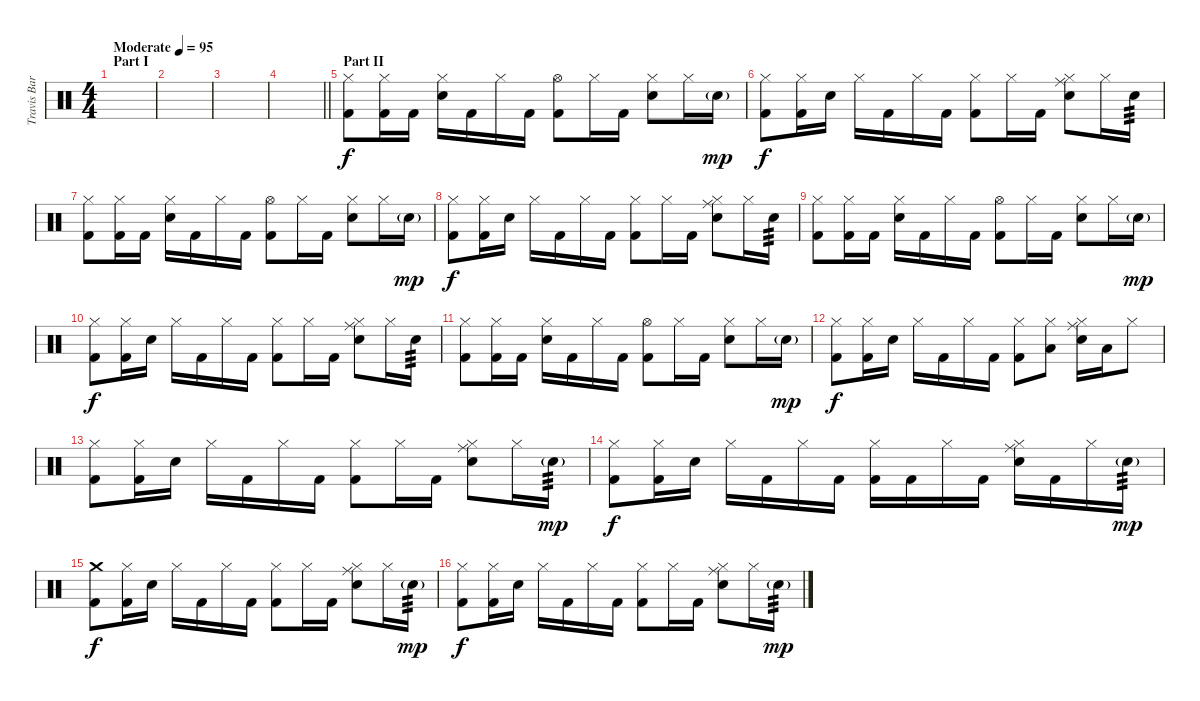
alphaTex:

\track ("Travis Barker - Drums" "Travis Bar") {instrument percussion}
\staff {score}
\articulation defaults
\ts (4 4)
\section ("" "Part I")
\tempo (95 "Moderate")
\clef neutral
\ks c
|
|
|
\barLineRight lightlight
|
\section ("" "Part II")
("Hi-Hat (closed)" "Kick (hit) 2").8 ("Hi-Hat (closed)" "Kick (hit) 2").16 "Kick (hit) 2".16 ("Hi-Hat (closed)" "Electric Snare (hit)").16 "Kick (hit) 2".16 "Hi-Hat (closed)".16 "Kick (hit) 2".16 ("Hi-Hat (open)" "Kick (hit) 2").8 "Hi-Hat (closed)".16 "Kick (hit) 2".16 ("Hi-Hat (closed)" "Electric Snare (hit)").8 "Hi-Hat (closed)".16 "Electric Snare (hit)"{g}.16{dy mp} |
("Hi-Hat (closed)" "Kick (hit) 2").8{dy f} ("Hi-Hat (closed)" "Kick (hit) 2").16 "Electric Snare (hit)".16 "Hi-Hat (closed)".16 "Kick (hit) 2".16 "Hi-Hat (closed)".16 "Kick (hit) 2".16 ("Hi-Hat (closed)" "Kick (hit) 2").8 "Hi-Hat (closed)".16 "Kick (hit) 2".16 ("Hi-Hat (closed)" "Ride (middle)" "Electric Snare (hit)").8 "Hi-Hat (closed)".16 "Electric Snare (hit)".16{tp 3} |
("Hi-Hat (closed)" "Kick (hit) 2").8 ("Hi-Hat (closed)" "Kick (hit) 2").16 "Kick (hit) 2".16 ("Hi-Hat (closed)" "Electric Snare (hit)").16 "Kick (hit) 2".16 "Hi-Hat (closed)".16 "Kick (hit) 2".16 ("Hi-Hat (open)" "Kick (hit) 2").8 "Hi-Hat (closed)".16 "Kick (hit) 2".16 ("Hi-Hat (closed)" "Electric Snare (hit)").8 "Hi-Hat (closed)".16 "Electric Snare (hit)"{g}.16{dy mp} |
("Hi-Hat (closed)" "Kick (hit) 2").8{dy f} ("Hi-Hat (closed)" "Kick (hit) 2").16 "Electric Snare (hit)".16 "Hi-Hat (closed)".16 "Kick (hit) 2".16 "Hi-Hat (closed)".16 "Kick (hit) 2".16 ("Hi-Hat (closed)" "Kick (hit) 2").8 "Hi-Hat (closed)".16 "Kick (hit) 2".16 ("Hi-Hat (closed)" "Ride (middle)" "Electric Snare (hit)").8 "Hi-Hat (closed)".16 "Electric Snare (hit)".16{tp 3} |
("Hi-Hat (closed)" "Kick (hit) 2").8 ("Hi-Hat (closed)" "Kick (hit) 2").16 "Kick (hit) 2".16 ("Hi-Hat (closed)" "Electric Snare (hit)").16 "Kick (hit) 2".16 "Hi-Hat (closed)".16 "Kick (hit) 2".16 ("Hi-Hat (open)" "Kick (hit) 2").8 "Hi-Hat (closed)".16 "Kick (hit) 2".16 ("Hi-Hat (closed)" "Electric Snare (hit)").8 "Hi-Hat (closed)".16 "Electric Snare (hit)"{g}.16{dy mp} |
("Hi-Hat (closed)" "Kick (hit) 2").8{dy f} ("Hi-Hat (closed)" "Kick (hit) 2").16 "Electric Snare (hit)".16 "Hi-Hat (closed)".16 "Kick (hit) 2".16 "Hi-Hat (closed)".16 "Kick (hit) 2".16 ("Hi-Hat (closed)" "Kick (hit) 2").8 "Hi-Hat (closed)".16 "Kick (hit) 2".16 ("Hi-Hat (closed)" "Ride (middle)" "Electric Snare (hit)").8 "Hi-Hat (closed)".16 "Electric Snare (hit)".16{tp 3} |
("Hi-Hat (closed)" "Kick (hit) 2").8 ("Hi-Hat (closed)" "Kick (hit) 2").16 "Kick (hit) 2".16 ("Hi-Hat (closed)" "Electric Snare (hit)").16 "Kick (hit) 2".16 "Hi-Hat (closed)".16 "Kick (hit) 2".16 ("Hi-Hat (open)" "Kick (hit) 2").8 "Hi-Hat (closed)".16 "Kick (hit) 2".16 ("Hi-Hat (closed)" "Electric Snare (hit)").8 "Hi-Hat (closed)".16 "Electric Snare (hit)"{g}.16{dy mp} |
("Hi-Hat (closed)" "Kick (hit) 2").8{dy f} ("Hi-Hat (closed)" "Kick (hit) 2").16 "Electric Snare (hit)".16 "Hi-Hat (closed)".16 "Kick (hit) 2".16 "Hi-Hat (closed)".16 "Kick (hit) 2".16 ("Hi-Hat (closed)" "Kick (hit) 2").8 ("Hi-Hat (closed)" "Low Tom (hit)").8 ("Hi-Hat (closed)" "Ride (middle)" "Electric Snare (hit)").16 "Low Tom (hit)".16 "Hi-Hat (closed)".8 |
("Hi-Hat (closed)" "Kick (hit) 2").8 ("Hi-Hat (closed)" "Kick (hit) 2").16 "Electric Snare (hit)".16 "Hi-Hat (closed)".16 "Kick (hit) 2".16 "Hi-Hat (closed)".16 "Kick (hit) 2".16 ("Hi-Hat (closed)" "Kick (hit) 2").8 "Hi-Hat (closed)".16 "Kick (hit) 2".16 ("Hi-Hat (closed)" "Ride (middle)" "Electric Snare (hit)").8 "Hi-Hat (closed)".16 "Electric Snare (hit)"{g}.16{tp 3 dy mp} |
("Hi-Hat (closed)" "Kick (hit) 2").8{dy f} ("Hi-Hat (closed)" "Kick (hit) 2").16 "Electric Snare (hit)".16 "Hi-Hat (closed)".16 "Kick (hit) 2".16 "Hi-Hat (closed)".16 "Kick (hit) 2".16 ("Hi-Hat (closed)" "Kick (hit) 2").16 "Kick (hit) 2".16 "Hi-Hat (closed)".16 "Kick (hit) 2".16 ("Hi-Hat (closed)" "Ride (middle)" "Electric Snare (hit)").16 "Kick (hit) 2".16 "Hi-Hat (closed)".16 "Electric Snare (hit)"{g}.16{tp 3 dy mp} |
("Crash medium (hit)" "Kick (hit) 2").8{dy f} ("Hi-Hat (closed)" "Kick (hit) 2").16 "Electric Snare (hit)".16 "Hi-Hat (closed)".16 "Kick (hit) 2".16 "Hi-Hat (closed)".16 "Kick (hit) 2".16 ("Hi-Hat (closed)" "Kick (hit) 2").8 "Hi-Hat (closed)".16 "Kick (hit) 2".16 ("Hi-Hat (closed)" "Ride (middle)" "Electric Snare (hit)").8 "Hi-Hat (closed)".16 "Electric Snare (hit)"{g}.16{tp 3 dy mp} |
("Hi-Hat (closed)" "Kick (hit) 2").8{dy f} ("Hi-Hat (closed)" "Kick (hit) 2").16 "Electric Snare (hit)".16 "Hi-Hat (closed)".16 "Kick (hit) 2".16 "Hi-Hat (closed)".16 "Kick (hit) 2".16 ("Hi-Hat (closed)" "Kick (hit) 2").8 "Hi-Hat (closed)".16 "Kick (hit) 2".16 ("Hi-Hat (closed)" "Ride (middle)" "Electric Snare (hit)").8 "Hi-Hat (closed)".16 "Electric Snare (hit)"{g}.16{tp 3 dy mp}
